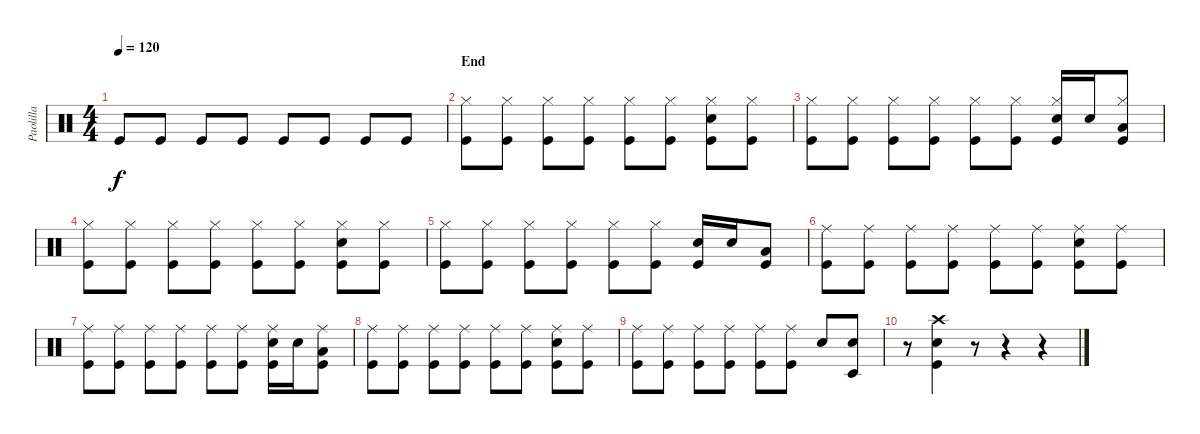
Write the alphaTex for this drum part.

\track ("Paolilla" "Paolilla") {instrument percussion}
\staff {score}
\articulation defaults
\ts (4 4)
\tempo 120
\clef neutral
\ks c "Kick (hit)".8{dy f} "Kick (hit)".8 "Kick (hit)".8 "Kick (hit)".8 "Kick (hit)".8 "Kick (hit)".8 "Kick (hit)".8 "Kick (hit)".8
|
\section ("" "End")
("Hi-Hat (closed)" "Kick (hit)").8 ("Hi-Hat (closed)" "Kick (hit)").8 ("Hi-Hat (closed)" "Kick (hit)").8 ("Hi-Hat (closed)" "Kick (hit)").8 ("Hi-Hat (closed)" "Kick (hit)").8 ("Hi-Hat (closed)" "Kick (hit)").8 ("Hi-Hat (closed)" "Snare (hit) 2" "Kick (hit)").8 ("Hi-Hat (closed)" "Kick (hit)").8 |
("Hi-Hat (closed)" "Kick (hit)").8 ("Hi-Hat (closed)" "Kick (hit)").8 ("Hi-Hat (closed)" "Kick (hit)").8 ("Hi-Hat (closed)" "Kick (hit)").8 ("Hi-Hat (closed)" "Kick (hit)").8 ("Hi-Hat (closed)" "Kick (hit)").8 ("Hi-Hat (closed)" "Snare (hit) 2" "Kick (hit)").16 "Snare (hit) 2".16 ("Hi-Hat (closed)" "Low Tom (hit)" "Kick (hit)").8 |
("Hi-Hat (closed)" "Kick (hit)").8 ("Hi-Hat (closed)" "Kick (hit)").8 ("Hi-Hat (closed)" "Kick (hit)").8 ("Hi-Hat (closed)" "Kick (hit)").8 ("Hi-Hat (closed)" "Kick (hit)").8 ("Hi-Hat (closed)" "Kick (hit)").8 ("Hi-Hat (closed)" "Snare (hit) 2" "Kick (hit)").8 ("Hi-Hat (closed)" "Kick (hit)").8 |
("Hi-Hat (closed)" "Kick (hit)").8 ("Hi-Hat (closed)" "Kick (hit)").8 ("Hi-Hat (closed)" "Kick (hit)").8 ("Hi-Hat (closed)" "Kick (hit)").8 ("Hi-Hat (closed)" "Kick (hit)").8 ("Hi-Hat (closed)" "Kick (hit)").8 ("Snare (hit) 2" "Kick (hit)").16 "Snare (hit) 2".16 ("Low Tom (hit)" "Kick (hit)").8 |
("Ride (middle)" "Kick (hit)").8 ("Ride (middle)" "Kick (hit)").8 ("Ride (middle)" "Kick (hit)").8 ("Ride (middle)" "Kick (hit)").8 ("Ride (middle)" "Kick (hit)").8 ("Ride (middle)" "Kick (hit)").8 ("Ride (middle)" "Snare (hit) 2" "Kick (hit)").8 ("Ride (middle)" "Kick (hit)").8 |
("Ride (middle)" "Kick (hit)").8 ("Ride (middle)" "Kick (hit)").8 ("Ride (middle)" "Kick (hit)").8 ("Ride (middle)" "Kick (hit)").8 ("Ride (middle)" "Kick (hit)").8 ("Ride (middle)" "Kick (hit)").8 ("Ride (middle)" "Snare (hit) 2" "Kick (hit)").16 "Snare (hit) 2".16 ("Ride (middle)" "Low Tom (hit)" "Kick (hit)").8 |
("Ride (middle)" "Kick (hit)").8 ("Ride (middle)" "Kick (hit)").8 ("Ride (middle)" "Kick (hit)").8 ("Ride (middle)" "Kick (hit)").8 ("Ride (middle)" "Kick (hit)").8 ("Ride (middle)" "Kick (hit)").8 ("Ride (middle)" "Snare (hit) 2" "Kick (hit)").8 ("Ride (middle)" "Kick (hit)").8 |
("Ride (middle)" "Kick (hit)").8 ("Ride (middle)" "Kick (hit)").8 ("Ride (middle)" "Kick (hit)").8 ("Ride (middle)" "Kick (hit)").8 ("Ride (middle)" "Kick (hit)").8 ("Ride (middle)" "Kick (hit)").8 "Snare (hit) 2".8 ("Timbale low (hit)" "Snare (hit) 2").8 |
r.8 ("Crash high (hit)" "Kick (hit)" "Snare (hit) 2").4 r.8 r.4 r.4
